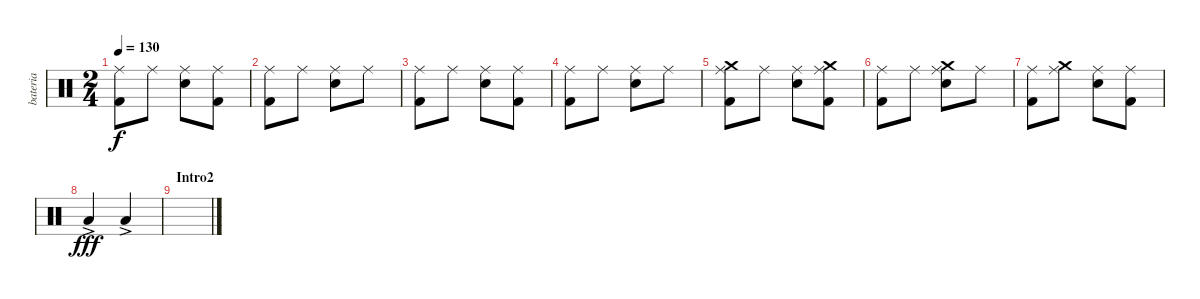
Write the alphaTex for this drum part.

\track ("bateria" "bateria") {instrument percussion}
\staff {score}
\articulation defaults
\ts (2 4)
\tempo 130
\clef neutral
\ks c
("Ride (middle)" "Kick (hit) 2").8{dy f} "Ride (middle)".8 ("Ride (middle)" "Electric Snare (hit)").8 ("Ride (middle)" "Kick (hit) 2").8 |
("Ride (middle)" "Kick (hit) 2").8 "Ride (middle)".8 ("Ride (middle)" "Electric Snare (hit)").8 "Ride (middle)".8 |
("Ride (middle)" "Kick (hit) 2").8 "Ride (middle)".8 ("Ride (middle)" "Electric Snare (hit)").8 ("Ride (middle)" "Kick (hit) 2").8 |
("Ride (middle)" "Kick (hit) 2").8 "Ride (middle)".8 ("Ride (middle)" "Electric Snare (hit)").8 "Ride (middle)".8 |
("Crash medium (hit)" "Ride (middle)" "Kick (hit) 2").8 "Ride (middle)".8 ("Ride (middle)" "Electric Snare (hit)").8 ("Crash medium (hit)" "Ride (middle)" "Kick (hit) 2").8 |
("Ride (middle)" "Kick (hit) 2").8 "Ride (middle)".8 ("Crash medium (hit)" "Ride (middle)" "Electric Snare (hit)").8 "Ride (middle)".8 |
("Ride (middle)" "Kick (hit) 2").8 ("Crash medium (hit)" "Ride (middle)").8 ("Ride (middle)" "Electric Snare (hit)").8 ("Ride (middle)" "Kick (hit) 2").8 |
"Low Floor Tom (hit)"{ac}.4{dy fff} "Low Floor Tom (hit)"{ac}.4 |
\section ("" "Intro2")
